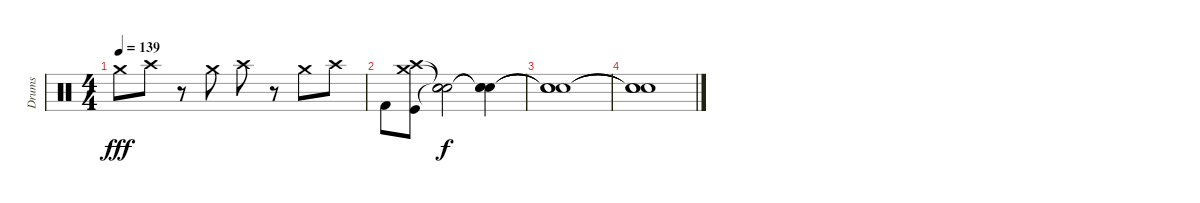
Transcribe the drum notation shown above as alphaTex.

\track ("Drums" "Drums") {instrument percussion}
\staff {score}
\articulation defaults
\ts (4 4)
\tempo 139
\clef neutral
\ks c "Crash medium (hit)".8{dy fff} "Crash high (hit)".8
r.8 "Crash medium (hit)".8 "Crash high (hit)".8 r.8 "Crash medium (hit)".8 "Crash high (hit)".8 |
"Kick (hit) 2".8{volume 12} ("Crash high (hit)" "Kick (hit)" "Crash medium (hit)").8 ("Snare (hit)"{t} "Snare (hit)"{t} "Snare (hit)"{t}).2{dy f} ("Snare (hit)"{t} "Snare (hit)"{t} "Snare (hit)"{t}).4 |
("Snare (hit)"{t} "Snare (hit)"{t} "Snare (hit)"{t}).1 |
("Snare (hit)"{t} "Snare (hit)"{t} "Snare (hit)"{t}).1
